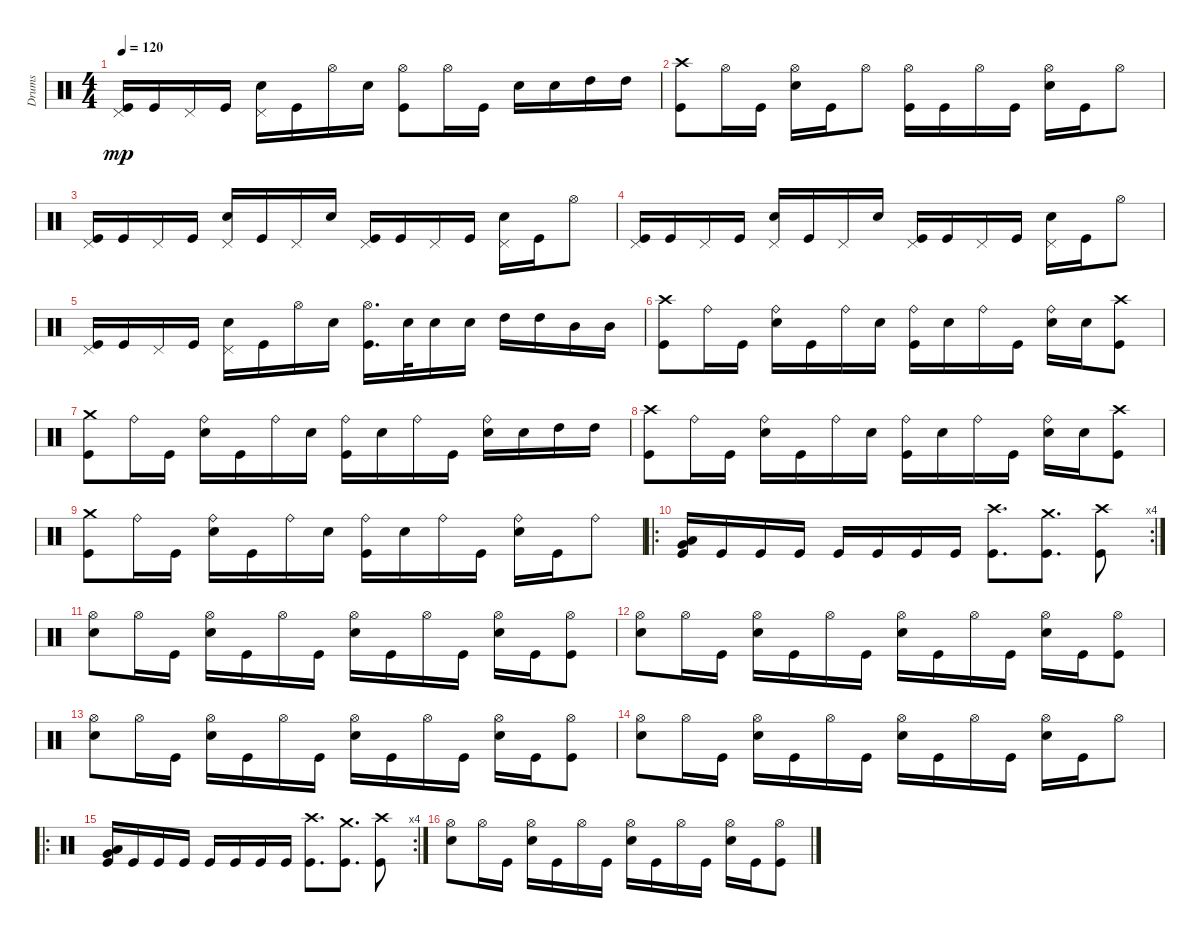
\track ("Drums" "Drums") {instrument percussion}
\staff {score}
\articulation defaults
\ts (4 4)
\tempo 120
\clef neutral
\ks c
("Pedal Hi-Hat (hit)" "Kick (hit)").16{dy mp} "Kick (hit)".16 "Pedal Hi-Hat (hit)".16 "Kick (hit)".16 ("Pedal Hi-Hat (hit)" "Snare (hit) 2").16 "Kick (hit)".16 "Hi-Hat (open)".16 "Snare (hit) 2".16 ("Hi-Hat (open)" "Kick (hit)").8 "Hi-Hat (open)".16 "Kick (hit)".16 "Snare (hit) 2".16 "Snare (hit) 2".16 "High Tom (hit)".16 "High Tom (hit)".16 |
("Crash high (hit)" "Kick (hit)").8 "Hi-Hat (open)".16 "Kick (hit)".16 ("Hi-Hat (open)" "Snare (hit) 2").16 "Kick (hit)".16 "Hi-Hat (open)".8 ("Hi-Hat (open)" "Kick (hit)").16 "Kick (hit)".16 "Hi-Hat (open)".16 "Kick (hit)".16 ("Hi-Hat (open)" "Snare (hit) 2").16 "Kick (hit)".16 "Hi-Hat (open)".8 |
("Pedal Hi-Hat (hit)" "Kick (hit)").16 "Kick (hit)".16 "Pedal Hi-Hat (hit)".16 "Kick (hit)".16 ("Pedal Hi-Hat (hit)" "Snare (hit) 2").16 "Kick (hit)".16 "Pedal Hi-Hat (hit)".16 "Snare (hit) 2".16 ("Pedal Hi-Hat (hit)" "Kick (hit)").16 "Kick (hit)".16 "Pedal Hi-Hat (hit)".16 "Kick (hit)".16 ("Pedal Hi-Hat (hit)" "Snare (hit) 2").16 "Kick (hit)".16 "Hi-Hat (open)".8 |
("Pedal Hi-Hat (hit)" "Kick (hit)").16 "Kick (hit)".16 "Pedal Hi-Hat (hit)".16 "Kick (hit)".16 ("Pedal Hi-Hat (hit)" "Snare (hit) 2").16 "Kick (hit)".16 "Pedal Hi-Hat (hit)".16 "Snare (hit) 2".16 ("Pedal Hi-Hat (hit)" "Kick (hit)").16 "Kick (hit)".16 "Pedal Hi-Hat (hit)".16 "Kick (hit)".16 ("Pedal Hi-Hat (hit)" "Snare (hit) 2").16 "Kick (hit)".16 "Hi-Hat (open)".8 |
("Pedal Hi-Hat (hit)" "Kick (hit)").16 "Kick (hit)".16 "Pedal Hi-Hat (hit)".16 "Kick (hit)".16 ("Pedal Hi-Hat (hit)" "Snare (hit) 2").16 "Kick (hit)".16 "Hi-Hat (open)".16 "Snare (hit) 2".16 ("Hi-Hat (open)" "Kick (hit)").16{d} "Snare (hit) 2".32 "Snare (hit) 2".16 "Snare (hit) 2".16 "High Tom (hit)".16 "High Tom (hit)".16 "Mid Tom (hit)".16 "Mid Tom (hit)".16 |
("Crash high (hit)" "Kick (hit)").8 "Ride (bell)".16 "Kick (hit)".16 ("Ride (bell)" "Snare (hit) 2").16 "Kick (hit)".16 "Ride (bell)".16 "Snare (hit) 2".16 ("Ride (bell)" "Kick (hit)").16 "Snare (hit) 2".16 "Ride (bell)".16 "Kick (hit)".16 ("Ride (bell)" "Snare (hit) 2").16 "Snare (hit) 2".16 ("Crash high (hit)" "Kick (hit)").8 |
("Crash medium (hit)" "Kick (hit)").8 "Ride (bell)".16 "Kick (hit)".16 ("Ride (bell)" "Snare (hit) 2").16 "Kick (hit)".16 "Ride (bell)".16 "Snare (hit) 2".16 ("Ride (bell)" "Kick (hit)").16 "Snare (hit) 2".16 "Ride (bell)".16 "Kick (hit)".16 ("Ride (bell)" "Snare (hit) 2").16 "Snare (hit) 2".16 "High Tom (hit)".16 "High Tom (hit)".16 |
("Crash high (hit)" "Kick (hit)").8 "Ride (bell)".16 "Kick (hit)".16 ("Ride (bell)" "Snare (hit) 2").16 "Kick (hit)".16 "Ride (bell)".16 "Snare (hit) 2".16 ("Ride (bell)" "Kick (hit)").16 "Snare (hit) 2".16 "Ride (bell)".16 "Kick (hit)".16 ("Ride (bell)" "Snare (hit) 2").16 "Snare (hit) 2".16 ("Crash high (hit)" "Kick (hit)").8 |
("Crash medium (hit)" "Kick (hit)").8 "Ride (bell)".16 "Kick (hit)".16 ("Ride (bell)" "Snare (hit) 2").16 "Kick (hit)".16 "Ride (bell)".16 "Snare (hit) 2".16 ("Ride (bell)" "Kick (hit)").16 "Snare (hit) 2".16 "Ride (bell)".16 "Kick (hit)".16 ("Ride (bell)" "Snare (hit) 2").16 "Kick (hit)".16 "Ride (bell)".8 |
\ro
\rc 4
("Very Low Tom (hit)" "Low Floor Tom (hit)" "Kick (hit)").16 "Kick (hit)".16 "Kick (hit)".16 "Kick (hit)".16 "Kick (hit)".16 "Kick (hit)".16 "Kick (hit)".16 "Kick (hit)".16 ("Crash high (hit)" "Kick (hit)").8{d} ("Crash medium (hit)" "Kick (hit)").8{d} ("Crash high (hit)" "Kick (hit)").8 |
("Hi-Hat (open)" "Snare (hit) 2").8 "Hi-Hat (open)".16 "Kick (hit)".16 ("Hi-Hat (open)" "Snare (hit) 2").16 "Kick (hit)".16 "Hi-Hat (open)".16 "Kick (hit)".16 ("Hi-Hat (open)" "Snare (hit) 2").16 "Kick (hit)".16 "Hi-Hat (open)".16 "Kick (hit)".16 ("Hi-Hat (open)" "Snare (hit) 2").16 "Kick (hit)".16 ("Hi-Hat (open)" "Kick (hit)").8 |
("Hi-Hat (open)" "Snare (hit) 2").8 "Hi-Hat (open)".16 "Kick (hit)".16 ("Hi-Hat (open)" "Snare (hit) 2").16 "Kick (hit)".16 "Hi-Hat (open)".16 "Kick (hit)".16 ("Hi-Hat (open)" "Snare (hit) 2").16 "Kick (hit)".16 "Hi-Hat (open)".16 "Kick (hit)".16 ("Hi-Hat (open)" "Snare (hit) 2").16 "Kick (hit)".16 ("Hi-Hat (open)" "Kick (hit)").8 |
("Hi-Hat (open)" "Snare (hit) 2").8 "Hi-Hat (open)".16 "Kick (hit)".16 ("Hi-Hat (open)" "Snare (hit) 2").16 "Kick (hit)".16 "Hi-Hat (open)".16 "Kick (hit)".16 ("Hi-Hat (open)" "Snare (hit) 2").16 "Kick (hit)".16 "Hi-Hat (open)".16 "Kick (hit)".16 ("Hi-Hat (open)" "Snare (hit) 2").16 "Kick (hit)".16 ("Hi-Hat (open)" "Kick (hit)").8 |
("Hi-Hat (open)" "Snare (hit) 2").8 "Hi-Hat (open)".16 "Kick (hit)".16 ("Hi-Hat (open)" "Snare (hit) 2").16 "Kick (hit)".16 "Hi-Hat (open)".16 "Kick (hit)".16 ("Hi-Hat (open)" "Snare (hit) 2").16 "Kick (hit)".16 "Hi-Hat (open)".16 "Kick (hit)".16 ("Hi-Hat (open)" "Snare (hit) 2").16 "Kick (hit)".16 "Hi-Hat (open)".8 |
\ro
\rc 4
("Very Low Tom (hit)" "Low Floor Tom (hit)" "Kick (hit)").16 "Kick (hit)".16 "Kick (hit)".16 "Kick (hit)".16 "Kick (hit)".16 "Kick (hit)".16 "Kick (hit)".16 "Kick (hit)".16 ("Crash high (hit)" "Kick (hit)").8{d} ("Crash medium (hit)" "Kick (hit)").8{d} ("Crash high (hit)" "Kick (hit)").8 |
("Hi-Hat (open)" "Snare (hit) 2").8 "Hi-Hat (open)".16 "Kick (hit)".16 ("Hi-Hat (open)" "Snare (hit) 2").16 "Kick (hit)".16 "Hi-Hat (open)".16 "Kick (hit)".16 ("Hi-Hat (open)" "Snare (hit) 2").16 "Kick (hit)".16 "Hi-Hat (open)".16 "Kick (hit)".16 ("Hi-Hat (open)" "Snare (hit) 2").16 "Kick (hit)".16 ("Hi-Hat (open)" "Kick (hit)").8
